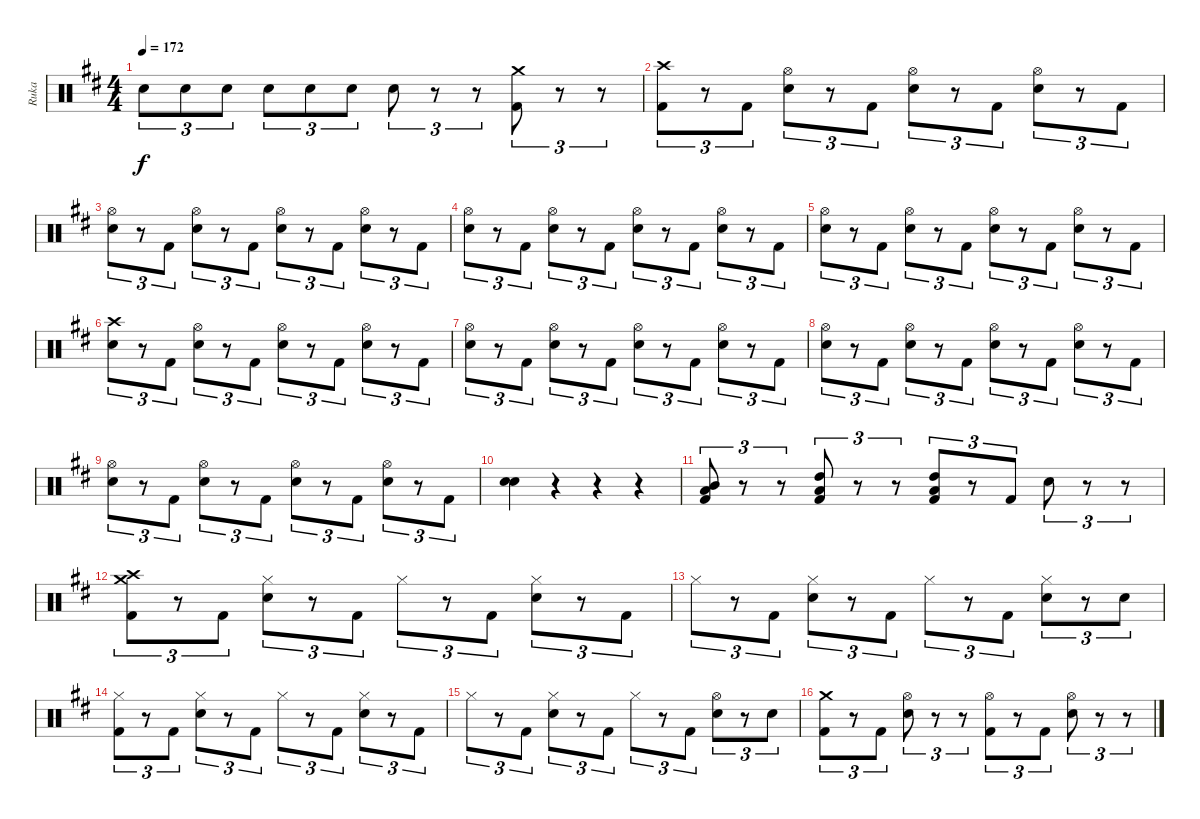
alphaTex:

\track ("Ruka" "Ruka") {instrument percussion}
\staff {score}
\articulation defaults
\ts (4 4)
\tempo 172
\clef neutral
\ks bminor "Electric Snare (hit)".8{tu (3 2) dy f} "Electric Snare (hit)".8{tu (3 2)} "Electric Snare (hit)".8{tu (3 2)} "Electric Snare (hit)".8{tu (3 2)} "Electric Snare (hit)".8{tu (3 2)} "Electric Snare (hit)".8{tu (3 2)} "Electric Snare (hit)".8{tu (3 2)}
r.8{tu (3 2)} r.8{tu (3 2)} ("Crash medium (hit)" "Kick (hit) 2").8{tu (3 2)} r.8{tu (3 2)} r.8{tu (3 2)} |
("Crash high (hit)" "Kick (hit) 2").8{tu (3 2)} r.8{tu (3 2)} "Kick (hit) 2".8{tu (3 2)} ("Hi-Hat (open)" "Electric Snare (hit)").8{tu (3 2)} r.8{tu (3 2)} "Kick (hit) 2".8{tu (3 2)} ("Hi-Hat (open)" "Electric Snare (hit)").8{tu (3 2)} r.8{tu (3 2)} "Kick (hit) 2".8{tu (3 2)} ("Hi-Hat (open)" "Electric Snare (hit)").8{tu (3 2)} r.8{tu (3 2)} "Kick (hit) 2".8{tu (3 2)} |
("Hi-Hat (open)" "Electric Snare (hit)").8{tu (3 2)} r.8{tu (3 2)} "Kick (hit) 2".8{tu (3 2)} ("Hi-Hat (open)" "Electric Snare (hit)").8{tu (3 2)} r.8{tu (3 2)} "Kick (hit) 2".8{tu (3 2)} ("Hi-Hat (open)" "Electric Snare (hit)").8{tu (3 2)} r.8{tu (3 2)} "Kick (hit) 2".8{tu (3 2)} ("Hi-Hat (open)" "Electric Snare (hit)").8{tu (3 2)} r.8{tu (3 2)} "Kick (hit) 2".8{tu (3 2)} |
("Hi-Hat (open)" "Electric Snare (hit)").8{tu (3 2)} r.8{tu (3 2)} "Kick (hit) 2".8{tu (3 2)} ("Hi-Hat (open)" "Electric Snare (hit)").8{tu (3 2)} r.8{tu (3 2)} "Kick (hit) 2".8{tu (3 2)} ("Hi-Hat (open)" "Electric Snare (hit)").8{tu (3 2)} r.8{tu (3 2)} "Kick (hit) 2".8{tu (3 2)} ("Hi-Hat (open)" "Electric Snare (hit)").8{tu (3 2)} r.8{tu (3 2)} "Kick (hit) 2".8{tu (3 2)} |
("Hi-Hat (open)" "Electric Snare (hit)").8{tu (3 2)} r.8{tu (3 2)} "Kick (hit) 2".8{tu (3 2)} ("Hi-Hat (open)" "Electric Snare (hit)").8{tu (3 2)} r.8{tu (3 2)} "Kick (hit) 2".8{tu (3 2)} ("Hi-Hat (open)" "Electric Snare (hit)").8{tu (3 2)} r.8{tu (3 2)} "Kick (hit) 2".8{tu (3 2)} ("Hi-Hat (open)" "Electric Snare (hit)").8{tu (3 2)} r.8{tu (3 2)} "Kick (hit) 2".8{tu (3 2)} |
("Crash high (hit)" "Electric Snare (hit)").8{tu (3 2)} r.8{tu (3 2)} "Kick (hit) 2".8{tu (3 2)} ("Hi-Hat (open)" "Electric Snare (hit)").8{tu (3 2)} r.8{tu (3 2)} "Kick (hit) 2".8{tu (3 2)} ("Hi-Hat (open)" "Electric Snare (hit)").8{tu (3 2)} r.8{tu (3 2)} "Kick (hit) 2".8{tu (3 2)} ("Hi-Hat (open)" "Electric Snare (hit)").8{tu (3 2)} r.8{tu (3 2)} "Kick (hit) 2".8{tu (3 2)} |
("Hi-Hat (open)" "Electric Snare (hit)").8{tu (3 2)} r.8{tu (3 2)} "Kick (hit) 2".8{tu (3 2)} ("Hi-Hat (open)" "Electric Snare (hit)").8{tu (3 2)} r.8{tu (3 2)} "Kick (hit) 2".8{tu (3 2)} ("Hi-Hat (open)" "Electric Snare (hit)").8{tu (3 2)} r.8{tu (3 2)} "Kick (hit) 2".8{tu (3 2)} ("Hi-Hat (open)" "Electric Snare (hit)").8{tu (3 2)} r.8{tu (3 2)} "Kick (hit) 2".8{tu (3 2)} |
("Hi-Hat (open)" "Electric Snare (hit)").8{tu (3 2)} r.8{tu (3 2)} "Kick (hit) 2".8{tu (3 2)} ("Hi-Hat (open)" "Electric Snare (hit)").8{tu (3 2)} r.8{tu (3 2)} "Kick (hit) 2".8{tu (3 2)} ("Hi-Hat (open)" "Electric Snare (hit)").8{tu (3 2)} r.8{tu (3 2)} "Kick (hit) 2".8{tu (3 2)} ("Hi-Hat (open)" "Electric Snare (hit)").8{tu (3 2)} r.8{tu (3 2)} "Kick (hit) 2".8{tu (3 2)} |
("Hi-Hat (open)" "Electric Snare (hit)").8{tu (3 2)} r.8{tu (3 2)} "Kick (hit) 2".8{tu (3 2)} ("Hi-Hat (open)" "Electric Snare (hit)").8{tu (3 2)} r.8{tu (3 2)} "Kick (hit) 2".8{tu (3 2)} ("Hi-Hat (open)" "Electric Snare (hit)").8{tu (3 2)} r.8{tu (3 2)} "Kick (hit) 2".8{tu (3 2)} ("Hi-Hat (open)" "Electric Snare (hit)").8{tu (3 2)} r.8{tu (3 2)} "Kick (hit) 2".8{tu (3 2)} |
("Electric Snare (hit)" "Electric Snare (hit)").4 r.4 r.4 r.4 |
("Kick (hit) 2" "Mid Tom (hit)" "Low Tom (hit)").8{tu (3 2)} r.8{tu (3 2)} r.8{tu (3 2)} ("High Tom (hit)" "Low Tom (hit)" "Kick (hit) 2").8{tu (3 2)} r.8{tu (3 2)} r.8{tu (3 2)} ("High Tom (hit)" "Low Tom (hit)" "Kick (hit) 2").8{tu (3 2)} r.8{tu (3 2)} "Kick (hit) 2".8{tu (3 2)} "Electric Snare (hit)".8{tu (3 2)} r.8{tu (3 2)} r.8{tu (3 2)} |
("Kick (hit) 2" "Crash medium (hit)" "Crash high (hit)").8{tu (3 2)} r.8{tu (3 2)} "Kick (hit) 2".8{tu (3 2)} ("Electric Snare (hit)" "Hi-Hat (closed)").8{tu (3 2)} r.8{tu (3 2)} "Kick (hit) 2".8{tu (3 2)} "Hi-Hat (closed)".8{tu (3 2)} r.8{tu (3 2)} "Kick (hit) 2".8{tu (3 2)} ("Electric Snare (hit)" "Hi-Hat (closed)").8{tu (3 2)} r.8{tu (3 2)} "Kick (hit) 2".8{tu (3 2)} |
"Hi-Hat (closed)".8{tu (3 2)} r.8{tu (3 2)} "Kick (hit) 2".8{tu (3 2)} ("Electric Snare (hit)" "Hi-Hat (closed)").8{tu (3 2)} r.8{tu (3 2)} "Kick (hit) 2".8{tu (3 2)} "Hi-Hat (closed)".8{tu (3 2)} r.8{tu (3 2)} "Kick (hit) 2".8{tu (3 2)} ("Electric Snare (hit)" "Hi-Hat (closed)").8{tu (3 2)} r.8{tu (3 2)} "Electric Snare (hit)".8{tu (3 2)} |
("Hi-Hat (closed)" "Kick (hit) 2").8{tu (3 2)} r.8{tu (3 2)} "Kick (hit) 2".8{tu (3 2)} ("Electric Snare (hit)" "Hi-Hat (closed)").8{tu (3 2)} r.8{tu (3 2)} "Kick (hit) 2".8{tu (3 2)} "Hi-Hat (closed)".8{tu (3 2)} r.8{tu (3 2)} "Kick (hit) 2".8{tu (3 2)} ("Electric Snare (hit)" "Hi-Hat (closed)").8{tu (3 2)} r.8{tu (3 2)} "Kick (hit) 2".8{tu (3 2)} |
"Hi-Hat (closed)".8{tu (3 2)} r.8{tu (3 2)} "Kick (hit) 2".8{tu (3 2)} ("Electric Snare (hit)" "Hi-Hat (closed)").8{tu (3 2)} r.8{tu (3 2)} "Kick (hit) 2".8{tu (3 2)} "Hi-Hat (closed)".8{tu (3 2)} r.8{tu (3 2)} "Kick (hit) 2".8{tu (3 2)} ("Electric Snare (hit)" "Hi-Hat (open)").8{tu (3 2)} r.8{tu (3 2)} "Electric Snare (hit)".8{tu (3 2)} |
("Kick (hit) 2" "Crash medium (hit)").8{tu (3 2)} r.8{tu (3 2)} "Kick (hit) 2".8{tu (3 2)} ("Electric Snare (hit)" "Hi-Hat (open)").8{tu (3 2)} r.8{tu (3 2)} r.8{tu (3 2)} ("Kick (hit) 2" "Hi-Hat (open)").8{tu (3 2)} r.8{tu (3 2)} "Kick (hit) 2".8{tu (3 2)} ("Electric Snare (hit)" "Hi-Hat (open)").8{tu (3 2)} r.8{tu (3 2)} r.8{tu (3 2)}
